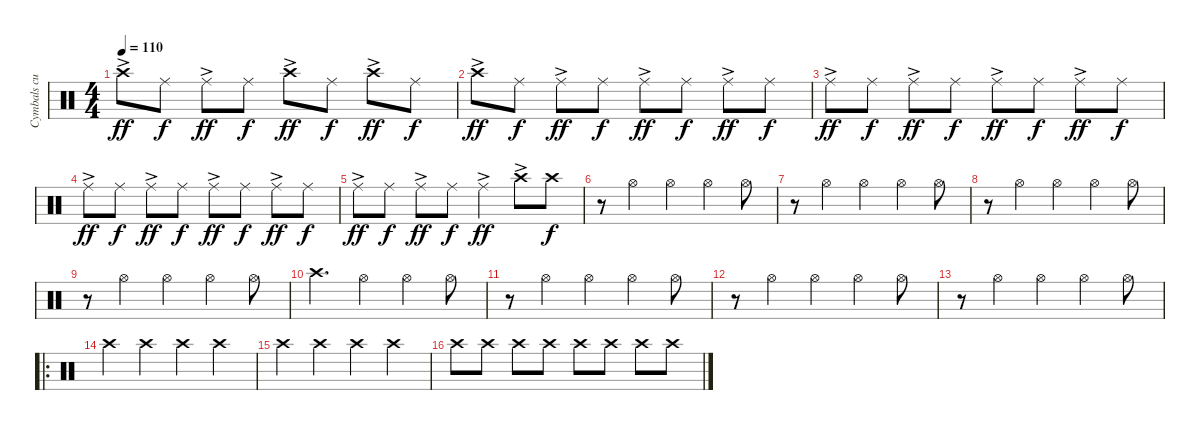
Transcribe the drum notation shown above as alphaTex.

\track ("Cymbals cuz I'm lazy" "Cymbals cu") {instrument percussion}
\staff {score}
\articulation defaults
\ts (4 4)
\tempo 110
\clef neutral
\ks c "Crash high (hit)"{ac}.8{dy ff} "Ride (middle)".8{dy f} "Ride (middle)"{ac}.8{dy ff} "Ride (middle)".8{dy f} "Crash high (hit)"{ac}.8{dy ff} "Ride (middle)".8{dy f} "Crash high (hit)"{ac}.8{dy ff} "Ride (middle)".8{dy f}
|
"Crash high (hit)"{ac}.8{dy ff volume 16} "Ride (middle)".8{dy f} "Ride (middle)"{ac}.8{dy ff} "Ride (middle)".8{dy f} "Ride (middle)"{ac}.8{dy ff} "Ride (middle)".8{dy f} "Ride (middle)"{ac}.8{dy ff} "Ride (middle)".8{dy f} |
"Ride (middle)"{ac}.8{dy ff} "Ride (middle)".8{dy f} "Ride (middle)"{ac}.8{dy ff} "Ride (middle)".8{dy f} "Ride (middle)"{ac}.8{dy ff} "Ride (middle)".8{dy f} "Ride (middle)"{ac}.8{dy ff} "Ride (middle)".8{dy f} |
"Ride (middle)"{ac}.8{dy ff} "Ride (middle)".8{dy f} "Ride (middle)"{ac}.8{dy ff} "Ride (middle)".8{dy f} "Ride (middle)"{ac}.8{dy ff} "Ride (middle)".8{dy f} "Ride (middle)"{ac}.8{dy ff} "Ride (middle)".8{dy f} |
"Ride (middle)"{ac}.8{dy ff} "Ride (middle)".8{dy f} "Ride (middle)"{ac}.8{dy ff} "Ride (middle)".8{dy f} "Ride (middle)"{ac}.4{dy ff} "Crash high (hit)"{ac}.8 "Crash high (hit)".8{dy f} |
r.8 "Hi-Hat (open)".4 "Hi-Hat (open)".4 "Hi-Hat (open)".4 "Hi-Hat (open)".8 |
r.8 "Hi-Hat (open)".4 "Hi-Hat (open)".4 "Hi-Hat (open)".4 "Hi-Hat (open)".8 |
r.8 "Hi-Hat (open)".4 "Hi-Hat (open)".4 "Hi-Hat (open)".4 "Hi-Hat (open)".8 |
r.8 "Hi-Hat (open)".4 "Hi-Hat (open)".4 "Hi-Hat (open)".4 "Hi-Hat (open)".8 |
"Crash high (hit)".4{d} "Hi-Hat (open)".4 "Hi-Hat (open)".4 "Hi-Hat (open)".8 |
r.8 "Hi-Hat (open)".4 "Hi-Hat (open)".4 "Hi-Hat (open)".4 "Hi-Hat (open)".8 |
r.8 "Hi-Hat (open)".4 "Hi-Hat (open)".4 "Hi-Hat (open)".4 "Hi-Hat (open)".8 |
r.8 "Hi-Hat (open)".4 "Hi-Hat (open)".4 "Hi-Hat (open)".4 "Hi-Hat (open)".8 |
\ro "Crash high (hit)".4 "Crash high (hit)".4 "Crash high (hit)".4 "Crash high (hit)".4
|
"Crash high (hit)".4 "Crash high (hit)".4 "Crash high (hit)".4 "Crash high (hit)".4 |
"Crash high (hit)".8 "Crash high (hit)".8 "Crash high (hit)".8 "Crash high (hit)".8 "Crash high (hit)".8 "Crash high (hit)".8 "Crash high (hit)".8 "Crash high (hit)".8
